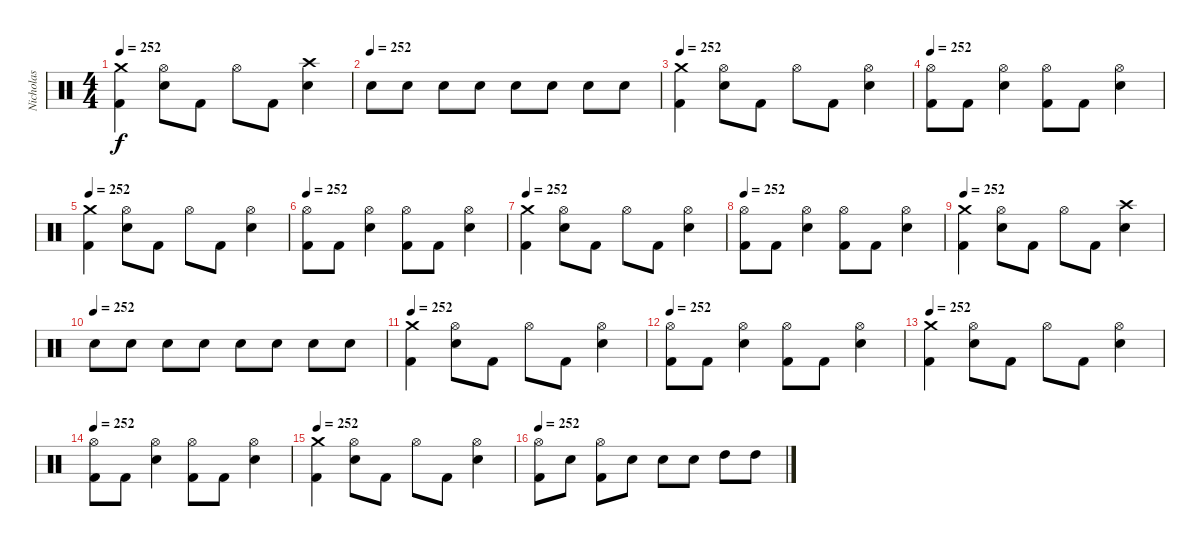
\track ("Nicholas" "Nicholas") {instrument percussion}
\staff {score}
\articulation defaults
\ts (4 4)
\tempo 252
\clef neutral
\ks c
("Crash medium (hit)" "Kick (hit) 2").4{dy f} ("Hi-Hat (open)" "Snare (hit) 2").8 "Kick (hit) 2".8 "Hi-Hat (open)".8 "Kick (hit) 2".8 ("Crash high (hit)" "Snare (hit) 2").4 |
\tempo (252)
"Snare (hit) 2".8 "Snare (hit) 2".8 "Snare (hit) 2".8 "Snare (hit) 2".8 "Snare (hit) 2".8 "Snare (hit) 2".8 "Snare (hit) 2".8 "Snare (hit) 2".8 |
\tempo 252
("Crash medium (hit)" "Kick (hit) 2").4 ("Hi-Hat (open)" "Snare (hit) 2").8 "Kick (hit) 2".8 "Hi-Hat (open)".8 "Kick (hit) 2".8 ("Hi-Hat (open)" "Snare (hit) 2").4 |
\tempo 252
("Hi-Hat (open)" "Kick (hit) 2").8 "Kick (hit) 2".8 ("Hi-Hat (open)" "Snare (hit) 2").4 ("Hi-Hat (open)" "Kick (hit) 2").8 "Kick (hit) 2".8 ("Hi-Hat (open)" "Snare (hit) 2").4 |
\tempo 252
("Crash medium (hit)" "Kick (hit) 2").4 ("Hi-Hat (open)" "Snare (hit) 2").8 "Kick (hit) 2".8 "Hi-Hat (open)".8 "Kick (hit) 2".8 ("Hi-Hat (open)" "Snare (hit) 2").4 |
\tempo 252
("Hi-Hat (open)" "Kick (hit) 2").8 "Kick (hit) 2".8 ("Hi-Hat (open)" "Snare (hit) 2").4 ("Hi-Hat (open)" "Kick (hit) 2").8 "Kick (hit) 2".8 ("Hi-Hat (open)" "Snare (hit) 2").4 |
\tempo 252
("Crash medium (hit)" "Kick (hit) 2").4 ("Hi-Hat (open)" "Snare (hit) 2").8 "Kick (hit) 2".8 "Hi-Hat (open)".8 "Kick (hit) 2".8 ("Hi-Hat (open)" "Snare (hit) 2").4 |
\tempo 252
("Hi-Hat (open)" "Kick (hit) 2").8 "Kick (hit) 2".8 ("Hi-Hat (open)" "Snare (hit) 2").4 ("Hi-Hat (open)" "Kick (hit) 2").8 "Kick (hit) 2".8 ("Hi-Hat (open)" "Snare (hit) 2").4 |
\tempo 252
("Crash medium (hit)" "Kick (hit) 2").4 ("Hi-Hat (open)" "Snare (hit) 2").8 "Kick (hit) 2".8 "Hi-Hat (open)".8 "Kick (hit) 2".8 ("Crash high (hit)" "Snare (hit) 2").4 |
\tempo (252)
"Snare (hit) 2".8 "Snare (hit) 2".8 "Snare (hit) 2".8 "Snare (hit) 2".8 "Snare (hit) 2".8 "Snare (hit) 2".8 "Snare (hit) 2".8 "Snare (hit) 2".8 |
\tempo 252
("Crash medium (hit)" "Kick (hit) 2").4 ("Hi-Hat (open)" "Snare (hit) 2").8 "Kick (hit) 2".8 "Hi-Hat (open)".8 "Kick (hit) 2".8 ("Hi-Hat (open)" "Snare (hit) 2").4 |
\tempo 252
("Hi-Hat (open)" "Kick (hit) 2").8 "Kick (hit) 2".8 ("Hi-Hat (open)" "Snare (hit) 2").4 ("Hi-Hat (open)" "Kick (hit) 2").8 "Kick (hit) 2".8 ("Hi-Hat (open)" "Snare (hit) 2").4 |
\tempo 252
("Crash medium (hit)" "Kick (hit) 2").4 ("Hi-Hat (open)" "Snare (hit) 2").8 "Kick (hit) 2".8 "Hi-Hat (open)".8 "Kick (hit) 2".8 ("Hi-Hat (open)" "Snare (hit) 2").4 |
\tempo 252
("Hi-Hat (open)" "Kick (hit) 2").8 "Kick (hit) 2".8 ("Hi-Hat (open)" "Snare (hit) 2").4 ("Hi-Hat (open)" "Kick (hit) 2").8 "Kick (hit) 2".8 ("Hi-Hat (open)" "Snare (hit) 2").4 |
\tempo 252
("Crash medium (hit)" "Kick (hit) 2").4 ("Hi-Hat (open)" "Snare (hit) 2").8 "Kick (hit) 2".8 "Hi-Hat (open)".8 "Kick (hit) 2".8 ("Hi-Hat (open)" "Snare (hit) 2").4 |
\tempo 252
("Hi-Hat (open)" "Kick (hit) 2").8 "Snare (hit) 2".8 ("Hi-Hat (open)" "Kick (hit) 2").8 "Snare (hit) 2".8 "Snare (hit) 2".8 "Snare (hit) 2".8 "High Tom (hit)".8 "High Tom (hit)".8
